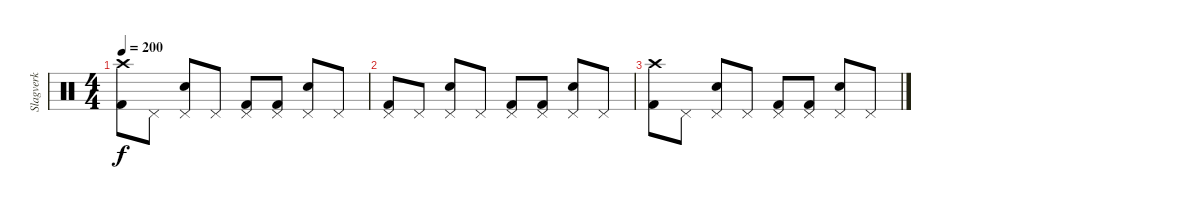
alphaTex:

\track ("Slagverk" "Slagverk") {instrument percussion}
\staff {score}
\articulation defaults
\ts (4 4)
\tempo 200
\clef neutral
\ks c
("Crash high (hit)" "Kick (hit) 2").8{dy f} "Pedal Hi-Hat (hit)".8 ("Pedal Hi-Hat (hit)" "Electric Snare (hit)").8 "Pedal Hi-Hat (hit)".8 ("Pedal Hi-Hat (hit)" "Kick (hit) 2").8 ("Pedal Hi-Hat (hit)" "Kick (hit) 2").8 ("Pedal Hi-Hat (hit)" "Electric Snare (hit)").8 "Pedal Hi-Hat (hit)".8 |
("Pedal Hi-Hat (hit)" "Kick (hit) 2").8 "Pedal Hi-Hat (hit)".8 ("Pedal Hi-Hat (hit)" "Electric Snare (hit)").8 "Pedal Hi-Hat (hit)".8 ("Pedal Hi-Hat (hit)" "Kick (hit) 2").8 ("Pedal Hi-Hat (hit)" "Kick (hit) 2").8 ("Pedal Hi-Hat (hit)" "Electric Snare (hit)").8 "Pedal Hi-Hat (hit)".8 |
("Crash high (hit)" "Kick (hit) 2").8 "Pedal Hi-Hat (hit)".8 ("Pedal Hi-Hat (hit)" "Electric Snare (hit)").8 "Pedal Hi-Hat (hit)".8 ("Pedal Hi-Hat (hit)" "Kick (hit) 2").8 ("Pedal Hi-Hat (hit)" "Kick (hit) 2").8 ("Pedal Hi-Hat (hit)" "Electric Snare (hit)").8 "Pedal Hi-Hat (hit)".8
